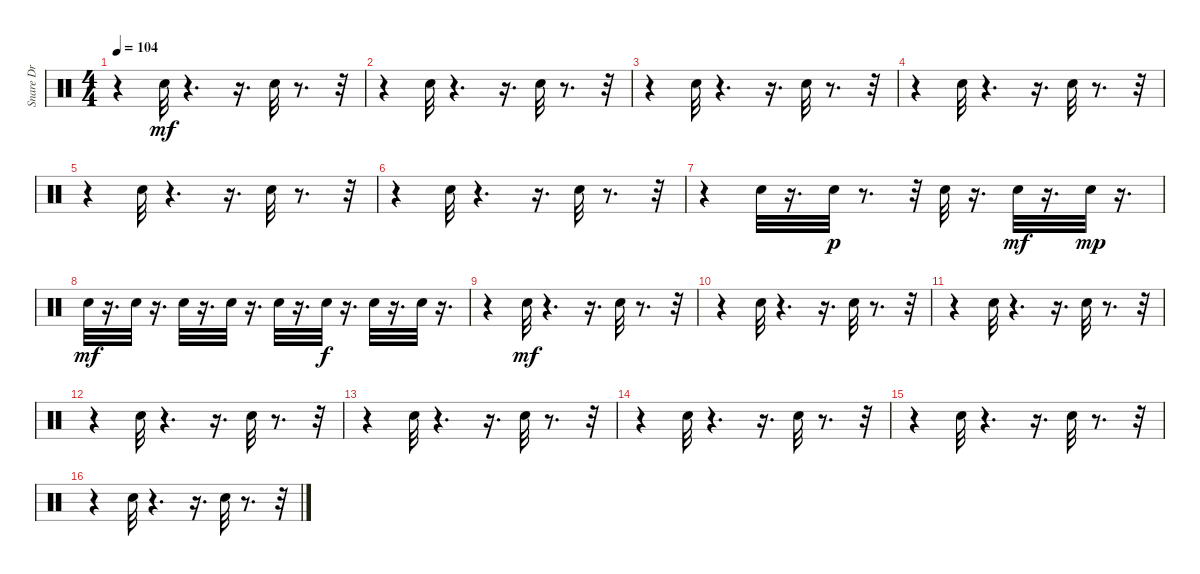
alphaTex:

\track ("  Snare Drum 1" "  Snare Dr") {instrument percussion}
\staff {score}
\articulation defaults
\ts (4 4)
\tempo 104
\clef neutral
\ks c
r.4{dy mf} "Snare (hit) 2".32 r.4{d} r.16{d} "Snare (hit) 2".32 r.8{d} r.32 |
r.4 "Snare (hit) 2".32 r.4{d} r.16{d} "Snare (hit) 2".32 r.8{d} r.32 |
r.4 "Snare (hit) 2".32 r.4{d} r.16{d} "Snare (hit) 2".32 r.8{d} r.32 |
r.4 "Snare (hit) 2".32 r.4{d} r.16{d} "Snare (hit) 2".32 r.8{d} r.32 |
r.4 "Snare (hit) 2".32 r.4{d} r.16{d} "Snare (hit) 2".32 r.8{d} r.32 |
r.4 "Snare (hit) 2".32 r.4{d} r.16{d} "Snare (hit) 2".32 r.8{d} r.32 |
r.4 "Snare (hit) 2".32 r.16{d} "Snare (hit) 2".32{dy p} r.8{d} r.32 "Snare (hit) 2".32 r.16{d} "Snare (hit) 2".32{dy mf} r.16{d} "Snare (hit) 2".32{dy mp} r.16{d} |
"Snare (hit) 2".32{dy mf} r.16{d} "Snare (hit) 2".32 r.16{d} "Snare (hit) 2".32 r.16{d} "Snare (hit) 2".32 r.16{d} "Snare (hit) 2".32 r.16{d} "Snare (hit) 2".32{dy f} r.16{d} "Snare (hit) 2".32 r.16{d} "Snare (hit) 2".32 r.16{d} |
r.4 "Snare (hit) 2".32{dy mf} r.4{d} r.16{d} "Snare (hit) 2".32 r.8{d} r.32 |
r.4 "Snare (hit) 2".32 r.4{d} r.16{d} "Snare (hit) 2".32 r.8{d} r.32 |
r.4 "Snare (hit) 2".32 r.4{d} r.16{d} "Snare (hit) 2".32 r.8{d} r.32 |
r.4 "Snare (hit) 2".32 r.4{d} r.16{d} "Snare (hit) 2".32 r.8{d} r.32 |
r.4 "Snare (hit) 2".32 r.4{d} r.16{d} "Snare (hit) 2".32 r.8{d} r.32 |
r.4 "Snare (hit) 2".32 r.4{d} r.16{d} "Snare (hit) 2".32 r.8{d} r.32 |
r.4 "Snare (hit) 2".32 r.4{d} r.16{d} "Snare (hit) 2".32 r.8{d} r.32 |
r.4 "Snare (hit) 2".32 r.4{d} r.16{d} "Snare (hit) 2".32 r.8{d} r.32
